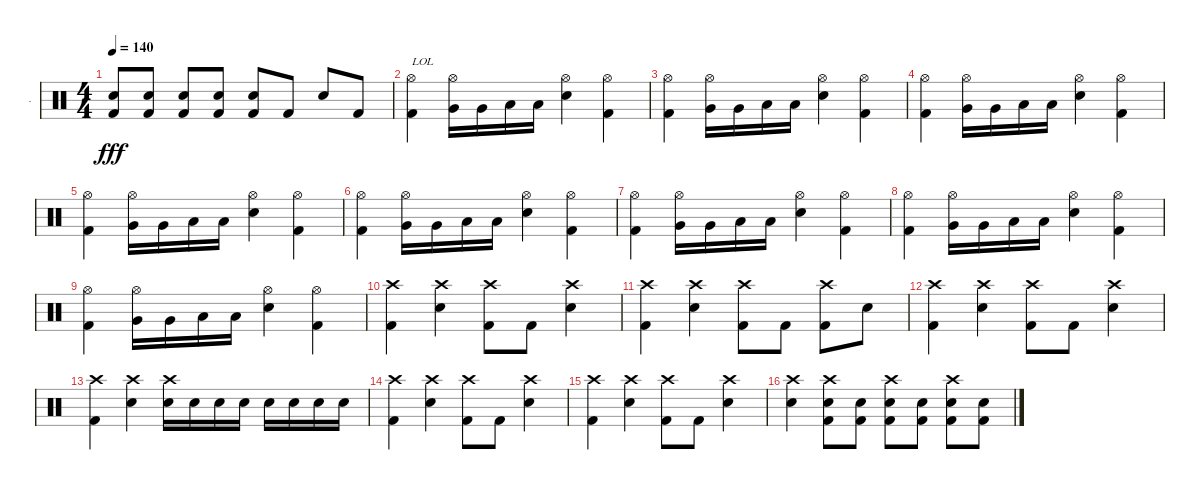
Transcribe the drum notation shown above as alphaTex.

\track ("." ".") {instrument percussion}
\staff {score}
\articulation defaults
\ts (4 4)
\tempo 140
\clef neutral
\ks c
("Electric Snare (hit)" "Kick (hit) 2").8{dy fff} ("Electric Snare (hit)" "Kick (hit) 2").8 ("Electric Snare (hit)" "Kick (hit) 2").8 ("Electric Snare (hit)" "Kick (hit) 2").8 ("Electric Snare (hit)" "Kick (hit) 2").8 "Kick (hit) 2".8 "Electric Snare (hit)".8 "Kick (hit) 2".8 |
("Hi-Hat (open)" "Kick (hit) 2").4{txt "LOL"} ("Hi-Hat (open)" "Very Low Tom (hit)").16 "Very Low Tom (hit)".16 "Low Floor Tom (hit)".16 "Low Floor Tom (hit)".16 ("Hi-Hat (open)" "Electric Snare (hit)").4 ("Hi-Hat (open)" "Kick (hit) 2").4 |
("Hi-Hat (open)" "Kick (hit) 2").4 ("Hi-Hat (open)" "Very Low Tom (hit)").16 "Very Low Tom (hit)".16 "Low Floor Tom (hit)".16 "Low Floor Tom (hit)".16 ("Hi-Hat (open)" "Electric Snare (hit)").4 ("Hi-Hat (open)" "Kick (hit) 2").4 |
("Hi-Hat (open)" "Kick (hit) 2").4 ("Hi-Hat (open)" "Very Low Tom (hit)").16 "Very Low Tom (hit)".16 "Low Floor Tom (hit)".16 "Low Floor Tom (hit)".16 ("Hi-Hat (open)" "Electric Snare (hit)").4 ("Hi-Hat (open)" "Kick (hit) 2").4 |
("Hi-Hat (open)" "Kick (hit) 2").4 ("Hi-Hat (open)" "Very Low Tom (hit)").16 "Very Low Tom (hit)".16 "Low Floor Tom (hit)".16 "Low Floor Tom (hit)".16 ("Hi-Hat (open)" "Electric Snare (hit)").4 ("Hi-Hat (open)" "Kick (hit) 2").4 |
("Hi-Hat (open)" "Kick (hit) 2").4 ("Hi-Hat (open)" "Very Low Tom (hit)").16 "Very Low Tom (hit)".16 "Low Floor Tom (hit)".16 "Low Floor Tom (hit)".16 ("Hi-Hat (open)" "Electric Snare (hit)").4 ("Hi-Hat (open)" "Kick (hit) 2").4 |
("Hi-Hat (open)" "Kick (hit) 2").4 ("Hi-Hat (open)" "Very Low Tom (hit)").16 "Very Low Tom (hit)".16 "Low Floor Tom (hit)".16 "Low Floor Tom (hit)".16 ("Hi-Hat (open)" "Electric Snare (hit)").4 ("Hi-Hat (open)" "Kick (hit) 2").4 |
("Hi-Hat (open)" "Kick (hit) 2").4 ("Hi-Hat (open)" "Very Low Tom (hit)").16 "Very Low Tom (hit)".16 "Low Floor Tom (hit)".16 "Low Floor Tom (hit)".16 ("Hi-Hat (open)" "Electric Snare (hit)").4 ("Hi-Hat (open)" "Kick (hit) 2").4 |
("Hi-Hat (open)" "Kick (hit) 2").4 ("Hi-Hat (open)" "Very Low Tom (hit)").16 "Very Low Tom (hit)".16 "Low Floor Tom (hit)".16 "Low Floor Tom (hit)".16 ("Hi-Hat (open)" "Electric Snare (hit)").4 ("Hi-Hat (open)" "Kick (hit) 2").4 |
("Crash high (hit)" "Kick (hit) 2").4 ("Crash high (hit)" "Electric Snare (hit)").4 ("Crash high (hit)" "Kick (hit) 2").8 "Kick (hit) 2".8 ("Crash high (hit)" "Electric Snare (hit)").4 |
("Crash high (hit)" "Kick (hit) 2").4 ("Crash high (hit)" "Electric Snare (hit)").4 ("Crash high (hit)" "Kick (hit) 2").8 "Kick (hit) 2".8 ("Crash high (hit)" "Kick (hit) 2").8 "Electric Snare (hit)".8 |
("Crash high (hit)" "Kick (hit) 2").4 ("Crash high (hit)" "Electric Snare (hit)").4 ("Crash high (hit)" "Kick (hit) 2").8 "Kick (hit) 2".8 ("Crash high (hit)" "Electric Snare (hit)").4 |
("Crash high (hit)" "Kick (hit) 2").4 ("Crash high (hit)" "Electric Snare (hit)").4 ("Crash high (hit)" "Electric Snare (hit)").16 "Electric Snare (hit)".16 "Electric Snare (hit)".16 "Electric Snare (hit)".16 "Electric Snare (hit)".16 "Electric Snare (hit)".16 "Electric Snare (hit)".16 "Electric Snare (hit)".16 |
("Crash high (hit)" "Kick (hit) 2").4 ("Crash high (hit)" "Electric Snare (hit)").4 ("Crash high (hit)" "Kick (hit) 2").8 "Kick (hit) 2".8 ("Crash high (hit)" "Electric Snare (hit)").4 |
("Crash high (hit)" "Kick (hit) 2").4 ("Crash high (hit)" "Electric Snare (hit)").4 ("Crash high (hit)" "Kick (hit) 2").8 "Kick (hit) 2".8 ("Crash high (hit)" "Electric Snare (hit)").4 |
("Crash high (hit)" "Electric Snare (hit)").4 ("Crash high (hit)" "Electric Snare (hit)" "Kick (hit) 2").8 ("Electric Snare (hit)" "Kick (hit) 2").8 ("Crash high (hit)" "Electric Snare (hit)" "Kick (hit) 2").8 ("Electric Snare (hit)" "Kick (hit) 2").8 ("Crash high (hit)" "Electric Snare (hit)" "Kick (hit) 2").8 ("Electric Snare (hit)" "Kick (hit) 2").8
